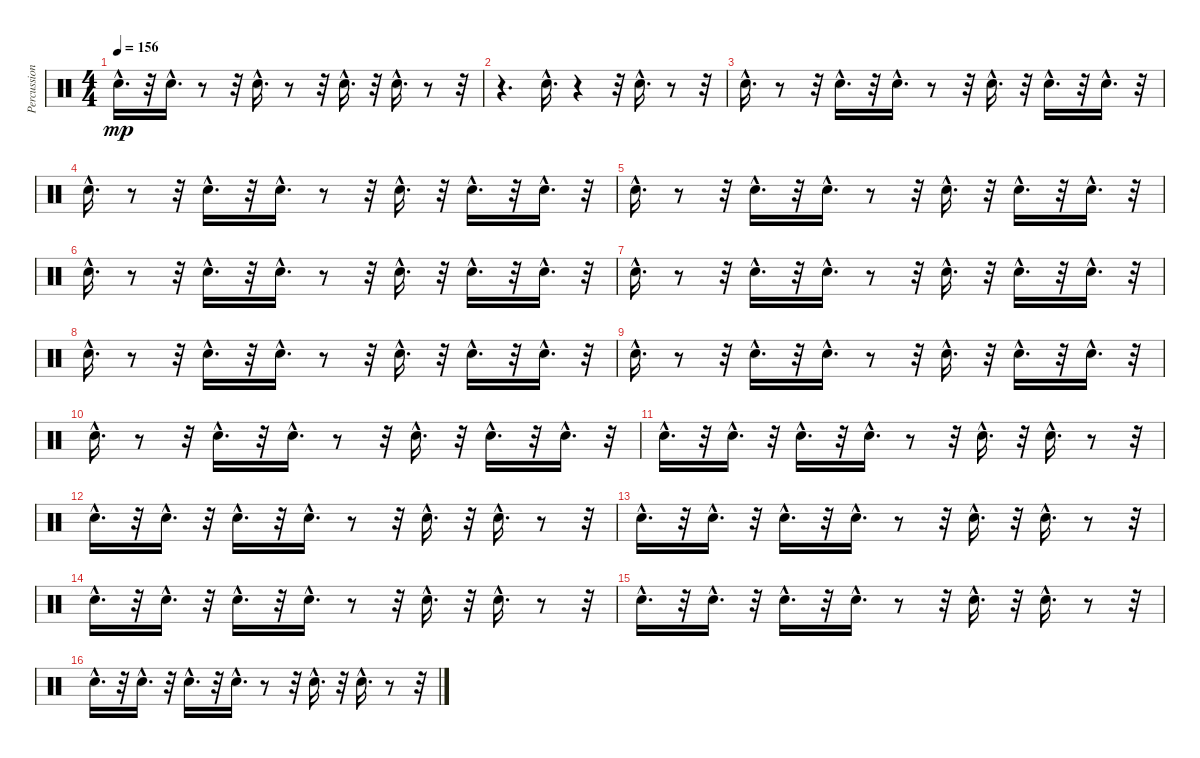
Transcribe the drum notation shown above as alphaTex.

\track ("Percussion" "Percussion") {instrument percussion}
\staff {score}
\articulation defaults
\ts (4 4)
\tempo 156
\clef neutral
\ks c "Snare (hit) 2"{hac}.16{d dy mp}
r.32 "Snare (hit) 2"{hac}.16{d} r.8 r.32 "Snare (hit) 2"{hac}.16{d} r.8 r.32 "Snare (hit) 2"{hac}.16{d} r.32 "Snare (hit) 2"{hac}.16{d} r.8 r.32 |
r.4{d} "Snare (hit) 2"{hac}.16{d} r.4 r.32 "Snare (hit) 2"{hac}.16{d} r.8 r.32 |
"Snare (hit) 2"{hac}.16{d} r.8 r.32 "Snare (hit) 2"{hac}.16{d} r.32 "Snare (hit) 2"{hac}.16{d} r.8 r.32 "Snare (hit) 2"{hac}.16{d} r.32 "Snare (hit) 2"{hac}.16{d} r.32 "Snare (hit) 2"{hac}.16{d} r.32 |
"Snare (hit) 2"{hac}.16{d} r.8 r.32 "Snare (hit) 2"{hac}.16{d} r.32 "Snare (hit) 2"{hac}.16{d} r.8 r.32 "Snare (hit) 2"{hac}.16{d} r.32 "Snare (hit) 2"{hac}.16{d} r.32 "Snare (hit) 2"{hac}.16{d} r.32 |
"Snare (hit) 2"{hac}.16{d} r.8 r.32 "Snare (hit) 2"{hac}.16{d} r.32 "Snare (hit) 2"{hac}.16{d} r.8 r.32 "Snare (hit) 2"{hac}.16{d} r.32 "Snare (hit) 2"{hac}.16{d} r.32 "Snare (hit) 2"{hac}.16{d} r.32 |
"Snare (hit) 2"{hac}.16{d} r.8 r.32 "Snare (hit) 2"{hac}.16{d} r.32 "Snare (hit) 2"{hac}.16{d} r.8 r.32 "Snare (hit) 2"{hac}.16{d} r.32 "Snare (hit) 2"{hac}.16{d} r.32 "Snare (hit) 2"{hac}.16{d} r.32 |
"Snare (hit) 2"{hac}.16{d} r.8 r.32 "Snare (hit) 2"{hac}.16{d} r.32 "Snare (hit) 2"{hac}.16{d} r.8 r.32 "Snare (hit) 2"{hac}.16{d} r.32 "Snare (hit) 2"{hac}.16{d} r.32 "Snare (hit) 2"{hac}.16{d} r.32 |
"Snare (hit) 2"{hac}.16{d} r.8 r.32 "Snare (hit) 2"{hac}.16{d} r.32 "Snare (hit) 2"{hac}.16{d} r.8 r.32 "Snare (hit) 2"{hac}.16{d} r.32 "Snare (hit) 2"{hac}.16{d} r.32 "Snare (hit) 2"{hac}.16{d} r.32 |
"Snare (hit) 2"{hac}.16{d} r.8 r.32 "Snare (hit) 2"{hac}.16{d} r.32 "Snare (hit) 2"{hac}.16{d} r.8 r.32 "Snare (hit) 2"{hac}.16{d} r.32 "Snare (hit) 2"{hac}.16{d} r.32 "Snare (hit) 2"{hac}.16{d} r.32 |
"Snare (hit) 2"{hac}.16{d} r.8 r.32 "Snare (hit) 2"{hac}.16{d} r.32 "Snare (hit) 2"{hac}.16{d} r.8 r.32 "Snare (hit) 2"{hac}.16{d} r.32 "Snare (hit) 2"{hac}.16{d} r.32 "Snare (hit) 2"{hac}.16{d} r.32 |
"Snare (hit) 2"{hac}.16{d} r.32 "Snare (hit) 2"{hac}.16{d} r.32 "Snare (hit) 2"{hac}.16{d} r.32 "Snare (hit) 2"{hac}.16{d} r.8 r.32 "Snare (hit) 2"{hac}.16{d} r.32 "Snare (hit) 2"{hac}.16{d} r.8 r.32 |
"Snare (hit) 2"{hac}.16{d} r.32 "Snare (hit) 2"{hac}.16{d} r.32 "Snare (hit) 2"{hac}.16{d} r.32 "Snare (hit) 2"{hac}.16{d} r.8 r.32 "Snare (hit) 2"{hac}.16{d} r.32 "Snare (hit) 2"{hac}.16{d} r.8 r.32 |
"Snare (hit) 2"{hac}.16{d} r.32 "Snare (hit) 2"{hac}.16{d} r.32 "Snare (hit) 2"{hac}.16{d} r.32 "Snare (hit) 2"{hac}.16{d} r.8 r.32 "Snare (hit) 2"{hac}.16{d} r.32 "Snare (hit) 2"{hac}.16{d} r.8 r.32 |
"Snare (hit) 2"{hac}.16{d} r.32 "Snare (hit) 2"{hac}.16{d} r.32 "Snare (hit) 2"{hac}.16{d} r.32 "Snare (hit) 2"{hac}.16{d} r.8 r.32 "Snare (hit) 2"{hac}.16{d} r.32 "Snare (hit) 2"{hac}.16{d} r.8 r.32 |
"Snare (hit) 2"{hac}.16{d} r.32 "Snare (hit) 2"{hac}.16{d} r.32 "Snare (hit) 2"{hac}.16{d} r.32 "Snare (hit) 2"{hac}.16{d} r.8 r.32 "Snare (hit) 2"{hac}.16{d} r.32 "Snare (hit) 2"{hac}.16{d} r.8 r.32 |
"Snare (hit) 2"{hac}.16{d} r.32 "Snare (hit) 2"{hac}.16{d} r.32 "Snare (hit) 2"{hac}.16{d} r.32 "Snare (hit) 2"{hac}.16{d} r.8 r.32 "Snare (hit) 2"{hac}.16{d} r.32 "Snare (hit) 2"{hac}.16{d} r.8 r.32
